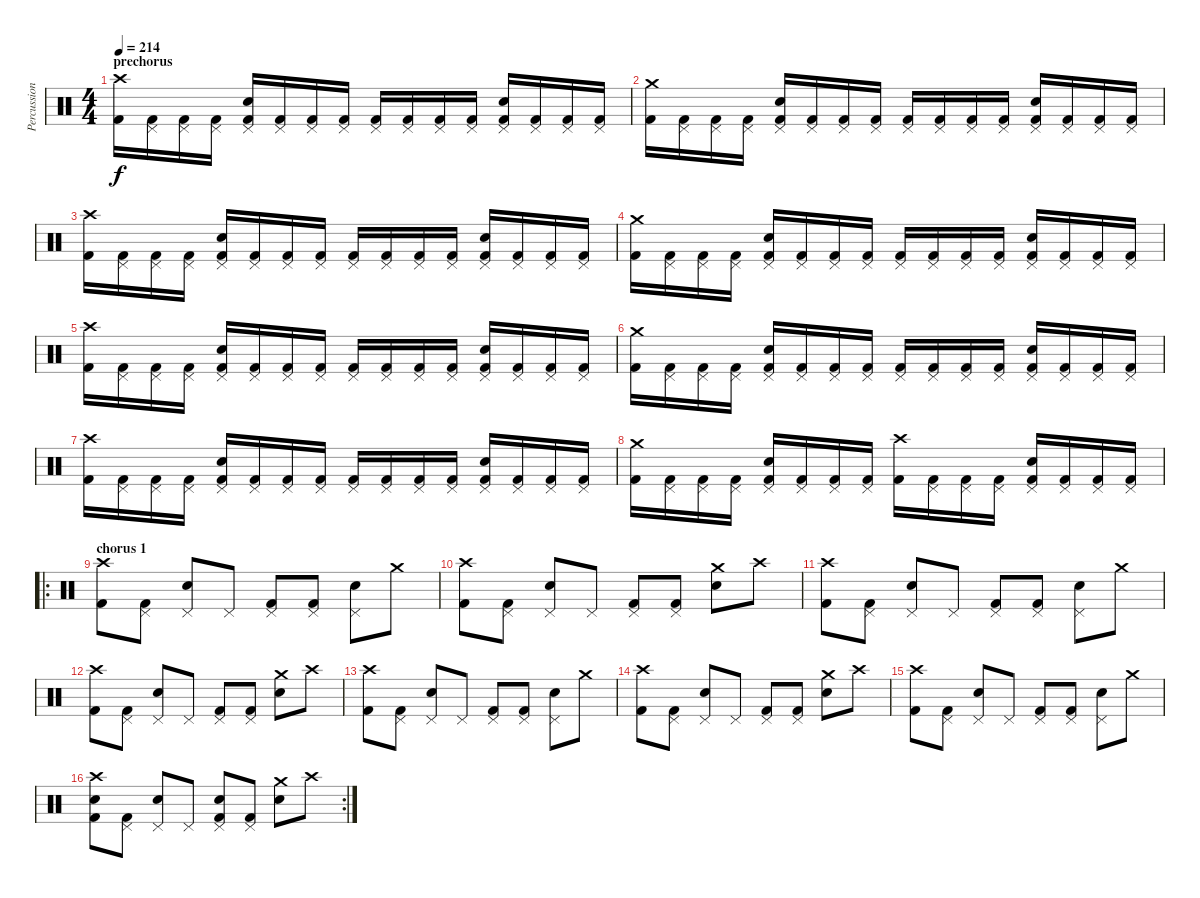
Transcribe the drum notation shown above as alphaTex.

\track ("Percussion" "Percussion") {instrument percussion}
\staff {score}
\articulation defaults
\ts (4 4)
\section ("" "prechorus")
\tempo 214
\clef neutral
\ks c
("Crash high (hit)" "Kick (hit) 2").16{dy f} ("Pedal Hi-Hat (hit)" "Kick (hit) 2").16 ("Pedal Hi-Hat (hit)" "Kick (hit) 2").16 ("Pedal Hi-Hat (hit)" "Kick (hit) 2").16 ("Pedal Hi-Hat (hit)" "Snare (hit) 2" "Kick (hit) 2").16 ("Pedal Hi-Hat (hit)" "Kick (hit) 2").16 ("Pedal Hi-Hat (hit)" "Kick (hit) 2").16 ("Pedal Hi-Hat (hit)" "Kick (hit) 2").16 ("Pedal Hi-Hat (hit)" "Kick (hit) 2").16 ("Pedal Hi-Hat (hit)" "Kick (hit) 2").16 ("Pedal Hi-Hat (hit)" "Kick (hit) 2").16 ("Pedal Hi-Hat (hit)" "Kick (hit) 2").16 ("Pedal Hi-Hat (hit)" "Snare (hit) 2" "Kick (hit) 2").16 ("Pedal Hi-Hat (hit)" "Kick (hit) 2").16 ("Pedal Hi-Hat (hit)" "Kick (hit) 2").16 ("Pedal Hi-Hat (hit)" "Kick (hit) 2").16 |
("Crash medium (hit)" "Kick (hit) 2").16 ("Pedal Hi-Hat (hit)" "Kick (hit) 2").16 ("Pedal Hi-Hat (hit)" "Kick (hit) 2").16 ("Pedal Hi-Hat (hit)" "Kick (hit) 2").16 ("Pedal Hi-Hat (hit)" "Snare (hit) 2" "Kick (hit) 2").16 ("Pedal Hi-Hat (hit)" "Kick (hit) 2").16 ("Pedal Hi-Hat (hit)" "Kick (hit) 2").16 ("Pedal Hi-Hat (hit)" "Kick (hit) 2").16 ("Pedal Hi-Hat (hit)" "Kick (hit) 2").16 ("Pedal Hi-Hat (hit)" "Kick (hit) 2").16 ("Pedal Hi-Hat (hit)" "Kick (hit) 2").16 ("Pedal Hi-Hat (hit)" "Kick (hit) 2").16 ("Pedal Hi-Hat (hit)" "Snare (hit) 2" "Kick (hit) 2").16 ("Pedal Hi-Hat (hit)" "Kick (hit) 2").16 ("Pedal Hi-Hat (hit)" "Kick (hit) 2").16 ("Pedal Hi-Hat (hit)" "Kick (hit) 2").16 |
("Crash high (hit)" "Kick (hit) 2").16 ("Pedal Hi-Hat (hit)" "Kick (hit) 2").16 ("Pedal Hi-Hat (hit)" "Kick (hit) 2").16 ("Pedal Hi-Hat (hit)" "Kick (hit) 2").16 ("Pedal Hi-Hat (hit)" "Snare (hit) 2" "Kick (hit) 2").16 ("Pedal Hi-Hat (hit)" "Kick (hit) 2").16 ("Pedal Hi-Hat (hit)" "Kick (hit) 2").16 ("Pedal Hi-Hat (hit)" "Kick (hit) 2").16 ("Pedal Hi-Hat (hit)" "Kick (hit) 2").16 ("Pedal Hi-Hat (hit)" "Kick (hit) 2").16 ("Pedal Hi-Hat (hit)" "Kick (hit) 2").16 ("Pedal Hi-Hat (hit)" "Kick (hit) 2").16 ("Pedal Hi-Hat (hit)" "Snare (hit) 2" "Kick (hit) 2").16 ("Pedal Hi-Hat (hit)" "Kick (hit) 2").16 ("Pedal Hi-Hat (hit)" "Kick (hit) 2").16 ("Pedal Hi-Hat (hit)" "Kick (hit) 2").16 |
("Crash medium (hit)" "Kick (hit) 2").16 ("Pedal Hi-Hat (hit)" "Kick (hit) 2").16 ("Pedal Hi-Hat (hit)" "Kick (hit) 2").16 ("Pedal Hi-Hat (hit)" "Kick (hit) 2").16 ("Pedal Hi-Hat (hit)" "Snare (hit) 2" "Kick (hit) 2").16 ("Pedal Hi-Hat (hit)" "Kick (hit) 2").16 ("Pedal Hi-Hat (hit)" "Kick (hit) 2").16 ("Pedal Hi-Hat (hit)" "Kick (hit) 2").16 ("Pedal Hi-Hat (hit)" "Kick (hit) 2").16 ("Pedal Hi-Hat (hit)" "Kick (hit) 2").16 ("Pedal Hi-Hat (hit)" "Kick (hit) 2").16 ("Pedal Hi-Hat (hit)" "Kick (hit) 2").16 ("Pedal Hi-Hat (hit)" "Snare (hit) 2" "Kick (hit) 2").16 ("Pedal Hi-Hat (hit)" "Kick (hit) 2").16 ("Pedal Hi-Hat (hit)" "Kick (hit) 2").16 ("Pedal Hi-Hat (hit)" "Kick (hit) 2").16 |
("Crash high (hit)" "Kick (hit) 2").16 ("Pedal Hi-Hat (hit)" "Kick (hit) 2").16 ("Pedal Hi-Hat (hit)" "Kick (hit) 2").16 ("Pedal Hi-Hat (hit)" "Kick (hit) 2").16 ("Pedal Hi-Hat (hit)" "Snare (hit) 2" "Kick (hit) 2").16 ("Pedal Hi-Hat (hit)" "Kick (hit) 2").16 ("Pedal Hi-Hat (hit)" "Kick (hit) 2").16 ("Pedal Hi-Hat (hit)" "Kick (hit) 2").16 ("Pedal Hi-Hat (hit)" "Kick (hit) 2").16 ("Pedal Hi-Hat (hit)" "Kick (hit) 2").16 ("Pedal Hi-Hat (hit)" "Kick (hit) 2").16 ("Pedal Hi-Hat (hit)" "Kick (hit) 2").16 ("Pedal Hi-Hat (hit)" "Snare (hit) 2" "Kick (hit) 2").16 ("Pedal Hi-Hat (hit)" "Kick (hit) 2").16 ("Pedal Hi-Hat (hit)" "Kick (hit) 2").16 ("Pedal Hi-Hat (hit)" "Kick (hit) 2").16 |
("Crash medium (hit)" "Kick (hit) 2").16 ("Pedal Hi-Hat (hit)" "Kick (hit) 2").16 ("Pedal Hi-Hat (hit)" "Kick (hit) 2").16 ("Pedal Hi-Hat (hit)" "Kick (hit) 2").16 ("Pedal Hi-Hat (hit)" "Snare (hit) 2" "Kick (hit) 2").16 ("Pedal Hi-Hat (hit)" "Kick (hit) 2").16 ("Pedal Hi-Hat (hit)" "Kick (hit) 2").16 ("Pedal Hi-Hat (hit)" "Kick (hit) 2").16 ("Pedal Hi-Hat (hit)" "Kick (hit) 2").16 ("Pedal Hi-Hat (hit)" "Kick (hit) 2").16 ("Pedal Hi-Hat (hit)" "Kick (hit) 2").16 ("Pedal Hi-Hat (hit)" "Kick (hit) 2").16 ("Pedal Hi-Hat (hit)" "Snare (hit) 2" "Kick (hit) 2").16 ("Pedal Hi-Hat (hit)" "Kick (hit) 2").16 ("Pedal Hi-Hat (hit)" "Kick (hit) 2").16 ("Pedal Hi-Hat (hit)" "Kick (hit) 2").16 |
("Crash high (hit)" "Kick (hit) 2").16 ("Pedal Hi-Hat (hit)" "Kick (hit) 2").16 ("Pedal Hi-Hat (hit)" "Kick (hit) 2").16 ("Pedal Hi-Hat (hit)" "Kick (hit) 2").16 ("Pedal Hi-Hat (hit)" "Snare (hit) 2" "Kick (hit) 2").16 ("Pedal Hi-Hat (hit)" "Kick (hit) 2").16 ("Pedal Hi-Hat (hit)" "Kick (hit) 2").16 ("Pedal Hi-Hat (hit)" "Kick (hit) 2").16 ("Pedal Hi-Hat (hit)" "Kick (hit) 2").16 ("Pedal Hi-Hat (hit)" "Kick (hit) 2").16 ("Pedal Hi-Hat (hit)" "Kick (hit) 2").16 ("Pedal Hi-Hat (hit)" "Kick (hit) 2").16 ("Pedal Hi-Hat (hit)" "Snare (hit) 2" "Kick (hit) 2").16 ("Pedal Hi-Hat (hit)" "Kick (hit) 2").16 ("Pedal Hi-Hat (hit)" "Kick (hit) 2").16 ("Pedal Hi-Hat (hit)" "Kick (hit) 2").16 |
("Crash medium (hit)" "Kick (hit) 2").16 ("Pedal Hi-Hat (hit)" "Kick (hit) 2").16 ("Pedal Hi-Hat (hit)" "Kick (hit) 2").16 ("Pedal Hi-Hat (hit)" "Kick (hit) 2").16 ("Pedal Hi-Hat (hit)" "Snare (hit) 2" "Kick (hit) 2").16 ("Pedal Hi-Hat (hit)" "Kick (hit) 2").16 ("Pedal Hi-Hat (hit)" "Kick (hit) 2").16 ("Pedal Hi-Hat (hit)" "Kick (hit) 2").16 ("Crash high (hit)" "Kick (hit) 2").16 ("Pedal Hi-Hat (hit)" "Kick (hit) 2").16 ("Pedal Hi-Hat (hit)" "Kick (hit) 2").16 ("Pedal Hi-Hat (hit)" "Kick (hit) 2").16 ("Pedal Hi-Hat (hit)" "Snare (hit) 2" "Kick (hit) 2").16 ("Pedal Hi-Hat (hit)" "Kick (hit) 2").16 ("Pedal Hi-Hat (hit)" "Kick (hit) 2").16 ("Pedal Hi-Hat (hit)" "Kick (hit) 2").16 |
\ro
\section ("" "chorus 1")
("Crash high (hit)" "Kick (hit) 2").8 ("Pedal Hi-Hat (hit)" "Kick (hit) 2").8 ("Pedal Hi-Hat (hit)" "Snare (hit) 2").8 "Pedal Hi-Hat (hit)".8 ("Pedal Hi-Hat (hit)" "Kick (hit) 2").8 ("Pedal Hi-Hat (hit)" "Kick (hit) 2").8 ("Pedal Hi-Hat (hit)" "Snare (hit) 2").8 "Crash medium (hit)".8 |
("Crash high (hit)" "Kick (hit) 2").8 ("Pedal Hi-Hat (hit)" "Kick (hit) 2").8 ("Pedal Hi-Hat (hit)" "Snare (hit) 2").8 "Pedal Hi-Hat (hit)".8 ("Pedal Hi-Hat (hit)" "Kick (hit) 2").8 ("Pedal Hi-Hat (hit)" "Kick (hit) 2").8 ("Crash medium (hit)" "Snare (hit) 2").8 "Crash high (hit)".8 |
("Crash high (hit)" "Kick (hit) 2").8 ("Pedal Hi-Hat (hit)" "Kick (hit) 2").8 ("Pedal Hi-Hat (hit)" "Snare (hit) 2").8 "Pedal Hi-Hat (hit)".8 ("Pedal Hi-Hat (hit)" "Kick (hit) 2").8 ("Pedal Hi-Hat (hit)" "Kick (hit) 2").8 ("Pedal Hi-Hat (hit)" "Snare (hit) 2").8 "Crash medium (hit)".8 |
("Crash high (hit)" "Kick (hit) 2").8 ("Pedal Hi-Hat (hit)" "Kick (hit) 2").8 ("Pedal Hi-Hat (hit)" "Snare (hit) 2").8 "Pedal Hi-Hat (hit)".8 ("Pedal Hi-Hat (hit)" "Kick (hit) 2").8 ("Pedal Hi-Hat (hit)" "Kick (hit) 2").8 ("Crash medium (hit)" "Snare (hit) 2").8 "Crash high (hit)".8 |
("Crash high (hit)" "Kick (hit) 2").8 ("Pedal Hi-Hat (hit)" "Kick (hit) 2").8 ("Pedal Hi-Hat (hit)" "Snare (hit) 2").8 "Pedal Hi-Hat (hit)".8 ("Pedal Hi-Hat (hit)" "Kick (hit) 2").8 ("Pedal Hi-Hat (hit)" "Kick (hit) 2").8 ("Pedal Hi-Hat (hit)" "Snare (hit) 2").8 "Crash medium (hit)".8 |
("Crash high (hit)" "Kick (hit) 2").8 ("Pedal Hi-Hat (hit)" "Kick (hit) 2").8 ("Pedal Hi-Hat (hit)" "Snare (hit) 2").8 "Pedal Hi-Hat (hit)".8 ("Pedal Hi-Hat (hit)" "Kick (hit) 2").8 ("Pedal Hi-Hat (hit)" "Kick (hit) 2").8 ("Crash medium (hit)" "Snare (hit) 2").8 "Crash high (hit)".8 |
("Crash high (hit)" "Kick (hit) 2").8 ("Pedal Hi-Hat (hit)" "Kick (hit) 2").8 ("Pedal Hi-Hat (hit)" "Snare (hit) 2").8 "Pedal Hi-Hat (hit)".8 ("Pedal Hi-Hat (hit)" "Kick (hit) 2").8 ("Pedal Hi-Hat (hit)" "Kick (hit) 2").8 ("Pedal Hi-Hat (hit)" "Snare (hit) 2").8 "Crash medium (hit)".8 |
\rc 2
("Crash high (hit)" "Snare (hit) 2" "Kick (hit) 2").8 ("Pedal Hi-Hat (hit)" "Kick (hit) 2").8 ("Pedal Hi-Hat (hit)" "Snare (hit) 2").8 "Pedal Hi-Hat (hit)".8 ("Pedal Hi-Hat (hit)" "Snare (hit) 2" "Kick (hit) 2").8 ("Pedal Hi-Hat (hit)" "Kick (hit) 2").8 ("Crash medium (hit)" "Snare (hit) 2").8 "Crash high (hit)".8
